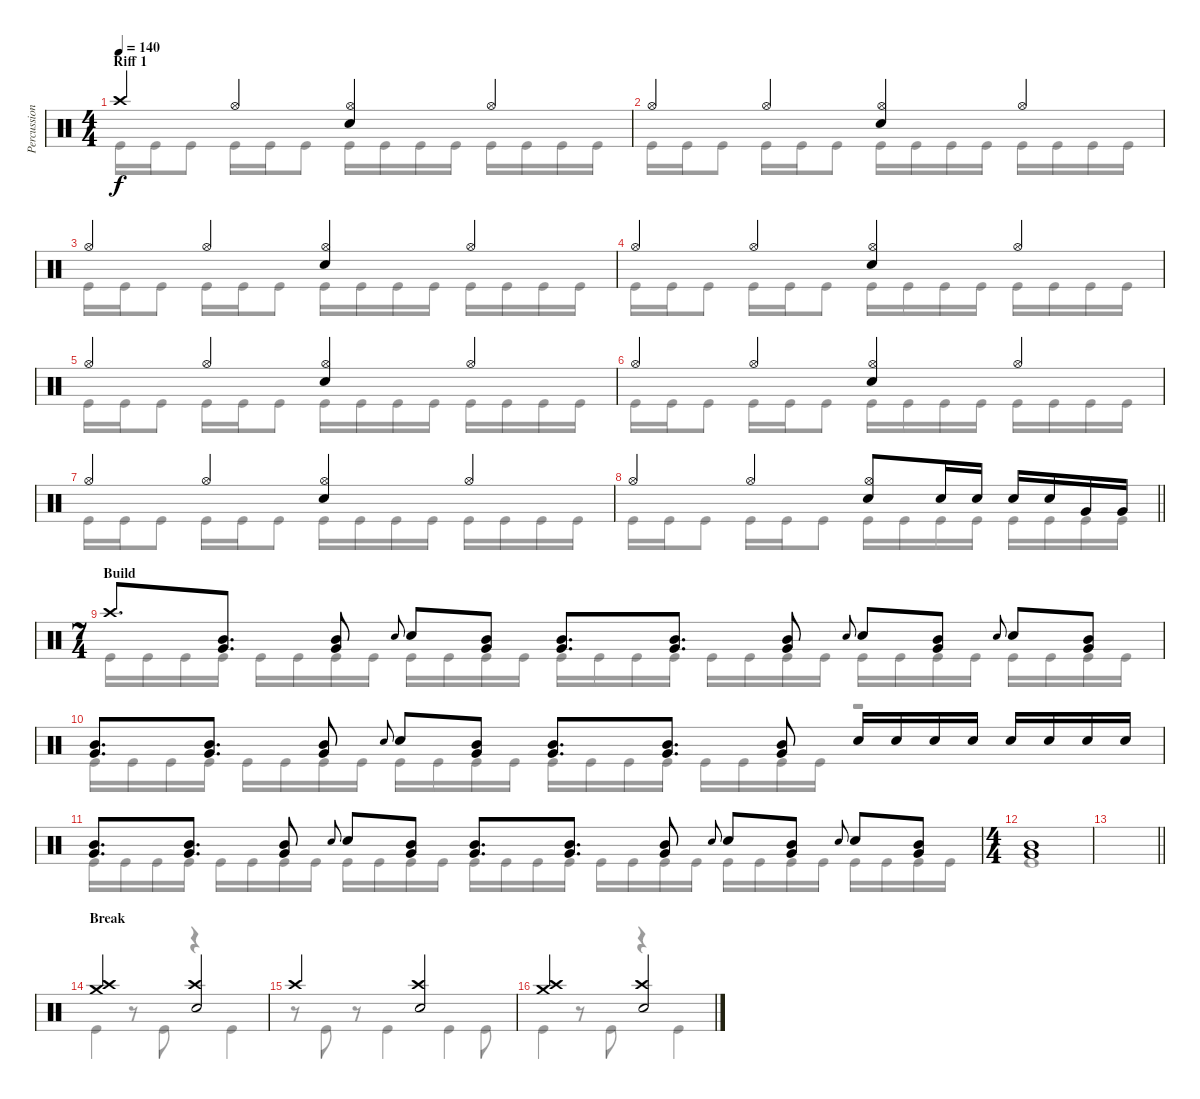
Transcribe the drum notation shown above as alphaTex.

\track ("Percussion" "Percussion") {instrument percussion}
\staff {score}
\articulation defaults
\voice
\ts (4 4)
\section ("" "Riff 1")
\tempo 140
\clef neutral
\ks c "Crash high (hit)".4{dy f} "Hi-Hat (open)".4
("Hi-Hat (open)" "Electric Snare (hit)").4 "Hi-Hat (open)".4 |
"Hi-Hat (open)".4 "Hi-Hat (open)".4 ("Hi-Hat (open)" "Electric Snare (hit)").4 "Hi-Hat (open)".4 |
"Hi-Hat (open)".4 "Hi-Hat (open)".4 ("Hi-Hat (open)" "Electric Snare (hit)").4 "Hi-Hat (open)".4 |
"Hi-Hat (open)".4 "Hi-Hat (open)".4 ("Hi-Hat (open)" "Electric Snare (hit)").4 "Hi-Hat (open)".4 |
"Hi-Hat (open)".4 "Hi-Hat (open)".4 ("Hi-Hat (open)" "Electric Snare (hit)").4 "Hi-Hat (open)".4 |
"Hi-Hat (open)".4 "Hi-Hat (open)".4 ("Hi-Hat (open)" "Electric Snare (hit)").4 "Hi-Hat (open)".4 |
"Hi-Hat (open)".4 "Hi-Hat (open)".4 ("Hi-Hat (open)" "Electric Snare (hit)").4 "Hi-Hat (open)".4 |
\barLineRight lightlight "Hi-Hat (open)".4 "Hi-Hat (open)".4
("Hi-Hat (open)" "Electric Snare (hit)").8 "Electric Snare (hit)".16 "Electric Snare (hit)".16 "Electric Snare (hit)".16 "Electric Snare (hit)".16 "Very Low Tom (hit)".16 "Very Low Tom (hit)".16 |
\ts (7 4)
\section ("" "Build")
"Crash high (hit)".8{d} ("Mid Tom (hit)" "Very Low Tom (hit)").8{d} ("Mid Tom (hit)" "Very Low Tom (hit)").8 "Electric Snare (hit)".8{gr onbeat} "Electric Snare (hit)".8 ("Mid Tom (hit)" "Very Low Tom (hit)").8 ("Mid Tom (hit)" "Very Low Tom (hit)").8{d} ("Mid Tom (hit)" "Very Low Tom (hit)").8{d} ("Mid Tom (hit)" "Very Low Tom (hit)").8 "Electric Snare (hit)".8{gr onbeat} "Electric Snare (hit)".8 ("Mid Tom (hit)" "Very Low Tom (hit)").8 "Electric Snare (hit)".8{gr onbeat} "Electric Snare (hit)".8 ("Mid Tom (hit)" "Very Low Tom (hit)").8 |
("Mid Tom (hit)" "Very Low Tom (hit)").8{d} ("Mid Tom (hit)" "Very Low Tom (hit)").8{d} ("Mid Tom (hit)" "Very Low Tom (hit)").8 "Electric Snare (hit)".8{gr onbeat} "Electric Snare (hit)".8 ("Mid Tom (hit)" "Very Low Tom (hit)").8 ("Mid Tom (hit)" "Very Low Tom (hit)").8{d} ("Mid Tom (hit)" "Very Low Tom (hit)").8{d} ("Mid Tom (hit)" "Very Low Tom (hit)").8 "Electric Snare (hit)".16 "Electric Snare (hit)".16 "Electric Snare (hit)".16 "Electric Snare (hit)".16 "Electric Snare (hit)".16 "Electric Snare (hit)".16 "Electric Snare (hit)".16 "Electric Snare (hit)".16 |
("Mid Tom (hit)" "Very Low Tom (hit)").8{d} ("Mid Tom (hit)" "Very Low Tom (hit)").8{d} ("Mid Tom (hit)" "Very Low Tom (hit)").8 "Electric Snare (hit)".8{gr onbeat} "Electric Snare (hit)".8 ("Mid Tom (hit)" "Very Low Tom (hit)").8 ("Mid Tom (hit)" "Very Low Tom (hit)").8{d} ("Mid Tom (hit)" "Very Low Tom (hit)").8{d} ("Mid Tom (hit)" "Very Low Tom (hit)").8 "Electric Snare (hit)".8{gr onbeat} "Electric Snare (hit)".8 ("Mid Tom (hit)" "Very Low Tom (hit)").8 "Electric Snare (hit)".8{gr onbeat} "Electric Snare (hit)".8 ("Mid Tom (hit)" "Very Low Tom (hit)").8 |
\ts (4 4)
("Mid Tom (hit)" "Very Low Tom (hit)").1 |
\barLineRight lightlight
|
\section ("" "Break")
("Crash medium (hit)" "Crash high (hit)").2 ("Crash high (hit)" "Electric Snare (hit)").2 |
"Crash high (hit)".2 ("Crash high (hit)" "Electric Snare (hit)").2 |
("Crash medium (hit)" "Crash high (hit)").2 ("Crash high (hit)" "Electric Snare (hit)").2
\voice
\clef neutral
\ottava regular
\simile none
\ks c "Kick (hit)".16{dy f} "Kick (hit)".16 "Kick (hit)".8 "Kick (hit)".16 "Kick (hit)".16 "Kick (hit)".8 "Kick (hit)".16 "Kick (hit)".16 "Kick (hit)".16 "Kick (hit)".16 "Kick (hit)".16 "Kick (hit)".16 "Kick (hit)".16 "Kick (hit)".16
|
"Kick (hit)".16 "Kick (hit)".16 "Kick (hit)".8 "Kick (hit)".16 "Kick (hit)".16 "Kick (hit)".8 "Kick (hit)".16 "Kick (hit)".16 "Kick (hit)".16 "Kick (hit)".16 "Kick (hit)".16 "Kick (hit)".16 "Kick (hit)".16 "Kick (hit)".16 |
"Kick (hit)".16 "Kick (hit)".16 "Kick (hit)".8 "Kick (hit)".16 "Kick (hit)".16 "Kick (hit)".8 "Kick (hit)".16 "Kick (hit)".16 "Kick (hit)".16 "Kick (hit)".16 "Kick (hit)".16 "Kick (hit)".16 "Kick (hit)".16 "Kick (hit)".16 |
"Kick (hit)".16 "Kick (hit)".16 "Kick (hit)".8 "Kick (hit)".16 "Kick (hit)".16 "Kick (hit)".8 "Kick (hit)".16 "Kick (hit)".16 "Kick (hit)".16 "Kick (hit)".16 "Kick (hit)".16 "Kick (hit)".16 "Kick (hit)".16 "Kick (hit)".16 |
"Kick (hit)".16 "Kick (hit)".16 "Kick (hit)".8 "Kick (hit)".16 "Kick (hit)".16 "Kick (hit)".8 "Kick (hit)".16 "Kick (hit)".16 "Kick (hit)".16 "Kick (hit)".16 "Kick (hit)".16 "Kick (hit)".16 "Kick (hit)".16 "Kick (hit)".16 |
"Kick (hit)".16 "Kick (hit)".16 "Kick (hit)".8 "Kick (hit)".16 "Kick (hit)".16 "Kick (hit)".8 "Kick (hit)".16 "Kick (hit)".16 "Kick (hit)".16 "Kick (hit)".16 "Kick (hit)".16 "Kick (hit)".16 "Kick (hit)".16 "Kick (hit)".16 |
"Kick (hit)".16 "Kick (hit)".16 "Kick (hit)".8 "Kick (hit)".16 "Kick (hit)".16 "Kick (hit)".8 "Kick (hit)".16 "Kick (hit)".16 "Kick (hit)".16 "Kick (hit)".16 "Kick (hit)".16 "Kick (hit)".16 "Kick (hit)".16 "Kick (hit)".16 |
\barLineRight lightlight "Kick (hit)".16 "Kick (hit)".16 "Kick (hit)".8 "Kick (hit)".16 "Kick (hit)".16 "Kick (hit)".8 "Kick (hit)".16 "Kick (hit)".16 "Kick (hit)".16 "Kick (hit)".16 "Kick (hit)".16 "Kick (hit)".16 "Kick (hit)".16 "Kick (hit)".16
|
"Kick (hit)".16 "Kick (hit)".16 "Kick (hit)".16 "Kick (hit)".16 "Kick (hit)".16 "Kick (hit)".16 "Kick (hit)".16 "Kick (hit)".16 "Kick (hit)".16 "Kick (hit)".16 "Kick (hit)".16 "Kick (hit)".16 "Kick (hit)".16 "Kick (hit)".16 "Kick (hit)".16 "Kick (hit)".16 "Kick (hit)".16 "Kick (hit)".16 "Kick (hit)".16 "Kick (hit)".16 "Kick (hit)".16 "Kick (hit)".16 "Kick (hit)".16 "Kick (hit)".16 "Kick (hit)".16 "Kick (hit)".16 "Kick (hit)".16 "Kick (hit)".16 |
"Kick (hit)".16 "Kick (hit)".16 "Kick (hit)".16 "Kick (hit)".16 "Kick (hit)".16 "Kick (hit)".16 "Kick (hit)".16 "Kick (hit)".16 "Kick (hit)".16 "Kick (hit)".16 "Kick (hit)".16 "Kick (hit)".16 "Kick (hit)".16 "Kick (hit)".16 "Kick (hit)".16 "Kick (hit)".16 "Kick (hit)".16 "Kick (hit)".16 "Kick (hit)".16 "Kick (hit)".16 r.2 |
"Kick (hit)".16 "Kick (hit)".16 "Kick (hit)".16 "Kick (hit)".16 "Kick (hit)".16 "Kick (hit)".16 "Kick (hit)".16 "Kick (hit)".16 "Kick (hit)".16 "Kick (hit)".16 "Kick (hit)".16 "Kick (hit)".16 "Kick (hit)".16 "Kick (hit)".16 "Kick (hit)".16 "Kick (hit)".16 "Kick (hit)".16 "Kick (hit)".16 "Kick (hit)".16 "Kick (hit)".16 "Kick (hit)".16 "Kick (hit)".16 "Kick (hit)".16 "Kick (hit)".16 "Kick (hit)".16 "Kick (hit)".16 "Kick (hit)".16 "Kick (hit)".16 |
"Kick (hit)".1 |
\barLineRight lightlight
|
"Kick (hit)".4 r.8 "Kick (hit)".8 r.4 "Kick (hit)".4 |
r.8 "Kick (hit)".8 r.8 "Kick (hit)".4 "Kick (hit)".4 "Kick (hit)".8 |
"Kick (hit)".4 r.8 "Kick (hit)".8 r.4 "Kick (hit)".4
